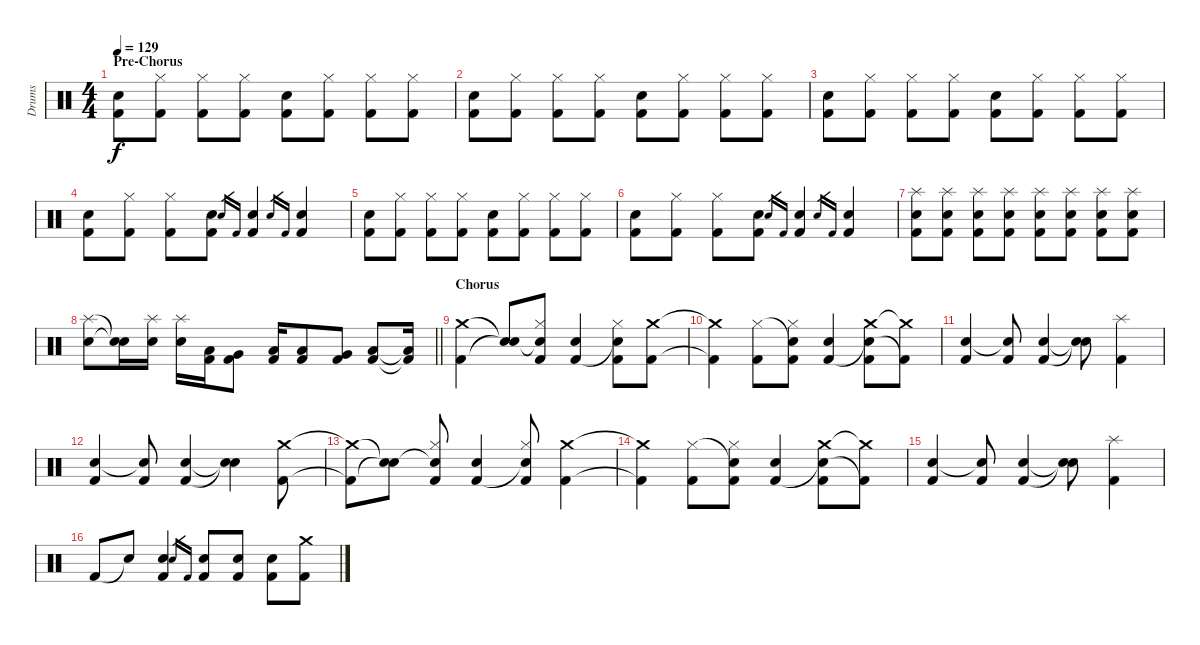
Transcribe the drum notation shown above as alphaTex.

\track ("Drums" "Drums") {instrument percussion}
\staff {score}
\articulation defaults
\ts (4 4)
\section ("" "Pre-Chorus")
\tempo 129
\clef neutral
\ks c
("Electric Snare (hit)" "Kick (hit) 2").8{dy f} ("Hi-Hat (closed)" "Kick (hit) 2").8 ("Hi-Hat (closed)" "Kick (hit) 2").8 ("Hi-Hat (closed)" "Kick (hit) 2").8 ("Electric Snare (hit)" "Kick (hit) 2").8 ("Hi-Hat (closed)" "Kick (hit) 2").8 ("Hi-Hat (closed)" "Kick (hit) 2").8 ("Hi-Hat (closed)" "Kick (hit) 2").8 |
("Electric Snare (hit)" "Kick (hit) 2").8 ("Hi-Hat (closed)" "Kick (hit) 2").8 ("Hi-Hat (closed)" "Kick (hit) 2").8 ("Hi-Hat (closed)" "Kick (hit) 2").8 ("Electric Snare (hit)" "Kick (hit) 2").8 ("Hi-Hat (closed)" "Kick (hit) 2").8 ("Hi-Hat (closed)" "Kick (hit) 2").8 ("Hi-Hat (closed)" "Kick (hit) 2").8 |
("Electric Snare (hit)" "Kick (hit) 2").8 ("Hi-Hat (closed)" "Kick (hit) 2").8 ("Hi-Hat (closed)" "Kick (hit) 2").8 ("Hi-Hat (closed)" "Kick (hit) 2").8 ("Electric Snare (hit)" "Kick (hit) 2").8 ("Hi-Hat (closed)" "Kick (hit) 2").8 ("Hi-Hat (closed)" "Kick (hit) 2").8 ("Hi-Hat (closed)" "Kick (hit) 2").8 |
("Electric Snare (hit)" "Kick (hit) 2").8 ("Hi-Hat (closed)" "Kick (hit) 2").8 ("Hi-Hat (closed)" "Kick (hit) 2").8 ("Electric Snare (hit)" "Kick (hit) 2").8 "Electric Snare (hit)".16{gr} "Kick (hit) 2".16{gr} ("Electric Snare (hit)" "Kick (hit) 2").4 "Electric Snare (hit)".16{gr} "Kick (hit) 2".16{gr} ("Electric Snare (hit)" "Kick (hit) 2").4 |
("Electric Snare (hit)" "Kick (hit) 2").8 ("Hi-Hat (closed)" "Kick (hit) 2").8 ("Hi-Hat (closed)" "Kick (hit) 2").8 ("Hi-Hat (closed)" "Kick (hit) 2").8 ("Electric Snare (hit)" "Kick (hit) 2").8 ("Hi-Hat (closed)" "Kick (hit) 2").8 ("Hi-Hat (closed)" "Kick (hit) 2").8 ("Hi-Hat (closed)" "Kick (hit) 2").8 |
("Electric Snare (hit)" "Kick (hit) 2").8 ("Hi-Hat (closed)" "Kick (hit) 2").8 ("Hi-Hat (closed)" "Kick (hit) 2").8 ("Electric Snare (hit)" "Kick (hit) 2").8 "Electric Snare (hit)".16{gr} "Kick (hit) 2".16{gr} ("Electric Snare (hit)" "Kick (hit) 2").4 "Electric Snare (hit)".16{gr} "Kick (hit) 2".16{gr} ("Electric Snare (hit)" "Kick (hit) 2").4 |
("Splash (hit)" "Electric Snare (hit)" "Kick (hit) 2").8 ("Splash (hit)" "Electric Snare (hit)" "Kick (hit) 2").8 ("Splash (hit)" "Electric Snare (hit)" "Kick (hit) 2").8 ("Splash (hit)" "Electric Snare (hit)" "Kick (hit) 2").8 ("Splash (hit)" "Electric Snare (hit)" "Kick (hit) 2").8 ("Splash (hit)" "Electric Snare (hit)" "Kick (hit) 2").8 ("Splash (hit)" "Electric Snare (hit)" "Kick (hit) 2").8 ("Splash (hit)" "Electric Snare (hit)" "Kick (hit) 2").8 |
\barLineRight lightlight
("Splash (hit)" "Electric Snare (hit)").8 ("Snare (hit)"{t} "Snare (hit)"{t}).16 ("Splash (hit)" "Electric Snare (hit)").16 ("Splash (hit)" "Electric Snare (hit)").16 ("Low Tom (hit)" "Kick (hit) 2").16 ("Very Low Tom (hit)" "Kick (hit) 2").8 ("Low Tom (hit)" "Kick (hit) 2").16 ("Low Tom (hit)" "Kick (hit) 2").8 ("Very Low Tom (hit)" "Kick (hit) 2").8 ("Low Floor Tom (hit)" "Kick (hit) 2").8 ("Low Floor Tom (hit)"{t} "Kick (hit) 2"{t}).16 |
\section ("" "Chorus")
("Crash medium (hit)" "Kick (hit) 2").4 ("Snare (hit)"{t} "Snare (hit)"{t}).8 ("Snare (hit)"{t} "Hi-Hat (closed)" "Kick (hit) 2").8 ("Electric Snare (hit)" "Kick (hit) 2").4 ("Hi-Hat (closed)" "Snare (hit)"{t} "Kick (hit) 2").8 ("Crash medium (hit)" "Kick (hit) 2").8 |
("Crash medium (hit)"{t} "Kick (hit) 2"{t}).4 ("Hi-Hat (closed)" "Kick (hit) 2").8 ("Snare (hit)"{t} "Hi-Hat (closed)" "Kick (hit) 2").8 ("Electric Snare (hit)" "Kick (hit) 2").4 ("Crash medium (hit)" "Snare (hit)"{t} "Kick (hit) 2").8 ("Crash medium (hit)"{t} "Kick (hit) 2"{t}).8 |
("Electric Snare (hit)" "Kick (hit) 2").4 ("Snare (hit)"{t} "Kick (hit) 2").8 ("Electric Snare (hit)" "Kick (hit) 2").4 ("Snare (hit)"{t} "Snare (hit)"{t}).8 ("Splash (hit)" "Kick (hit) 2").4 |
("Electric Snare (hit)" "Kick (hit) 2").4 ("Snare (hit)"{t} "Kick (hit) 2").8 ("Electric Snare (hit)" "Kick (hit) 2").4 ("Snare (hit)"{t} "Snare (hit)"{t}).4 ("Crash medium (hit)" "Kick (hit) 2").8 |
("Crash medium (hit)"{t} "Kick (hit) 2"{t}).8 ("Snare (hit)"{t} "Snare (hit)"{t}).8 ("Snare (hit)"{t} "Hi-Hat (closed)" "Kick (hit) 2").8 ("Electric Snare (hit)" "Kick (hit) 2").4 ("Hi-Hat (closed)" "Snare (hit)"{t} "Kick (hit) 2").8 ("Crash medium (hit)" "Kick (hit) 2").4 |
("Crash medium (hit)"{t} "Kick (hit) 2"{t}).4 ("Hi-Hat (closed)" "Kick (hit) 2").8 ("Snare (hit)"{t} "Hi-Hat (closed)" "Kick (hit) 2").8 ("Electric Snare (hit)" "Kick (hit) 2").4 ("Crash medium (hit)" "Snare (hit)"{t} "Kick (hit) 2").8 ("Crash medium (hit)"{t} "Kick (hit) 2"{t}).8 |
("Electric Snare (hit)" "Kick (hit) 2").4 ("Snare (hit)"{t} "Kick (hit) 2").8 ("Electric Snare (hit)" "Kick (hit) 2").4 ("Snare (hit)"{t} "Snare (hit)"{t}).8 ("Splash (hit)" "Kick (hit) 2").4 |
"Kick (hit) 2".8 "Snare (hit)"{t}.8 ("Electric Snare (hit)" "Kick (hit) 2").4 "Electric Snare (hit)".16{gr} "Kick (hit) 2".16{gr} ("Electric Snare (hit)" "Kick (hit) 2").8 ("Electric Snare (hit)" "Kick (hit) 2").8 ("Electric Snare (hit)" "Kick (hit) 2").8 ("Crash medium (hit)" "Kick (hit) 2").8
